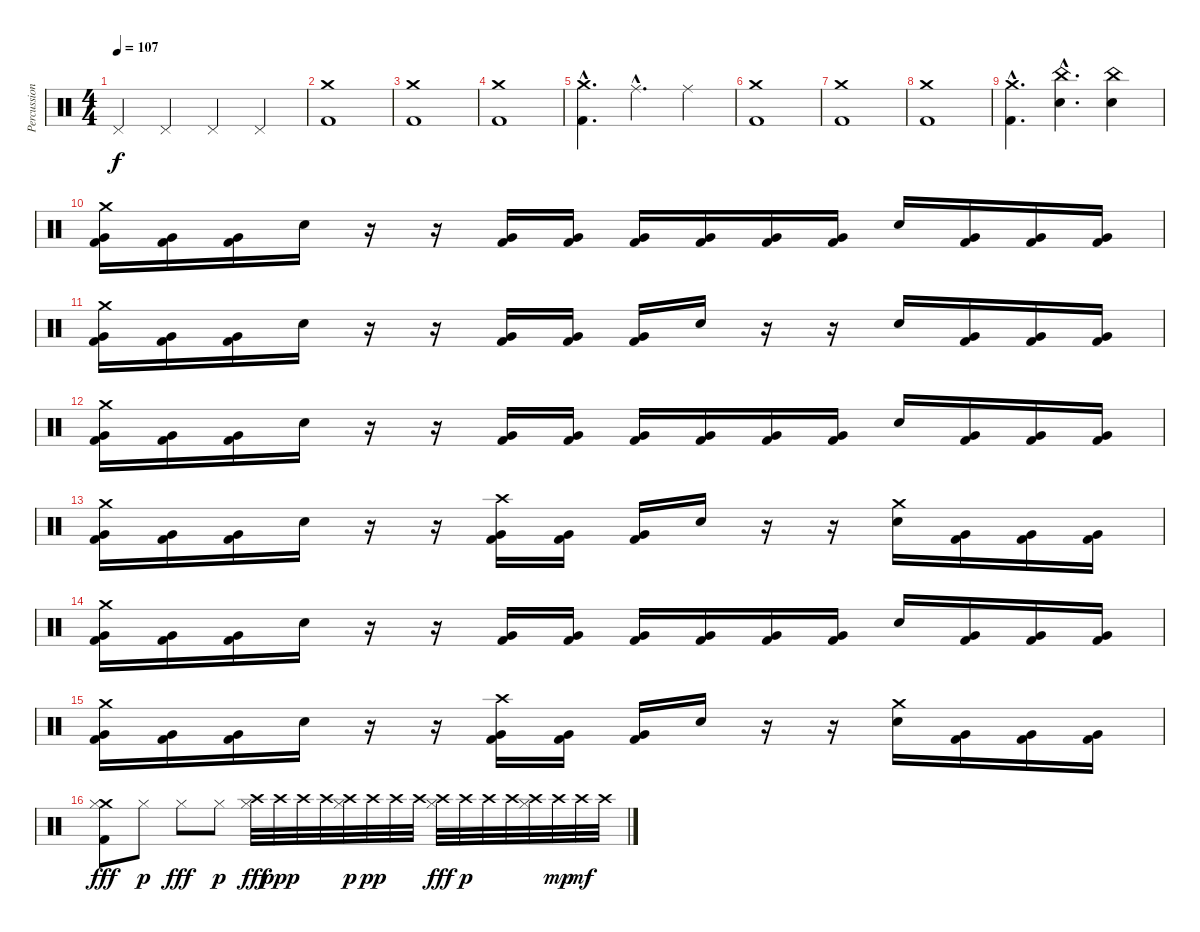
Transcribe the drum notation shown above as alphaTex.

\track ("Percussion" "Percussion") {instrument percussion}
\staff {score}
\articulation defaults
\ts (4 4)
\tempo 107
\clef neutral
\ks c "Pedal Hi-Hat (hit)".4{dy f} "Pedal Hi-Hat (hit)".4 "Pedal Hi-Hat (hit)".4 "Pedal Hi-Hat (hit)".4
|
("Crash medium (hit)" "Kick (hit) 2").1 |
("Crash medium (hit)" "Kick (hit) 2").1 |
("Crash medium (hit)" "Kick (hit) 2").1 |
("Crash medium (hit)"{hac} "Kick (hit) 2"{hac}).4{d} "Ride (middle)"{hac}.4{d} "Ride (middle)".4 |
("Crash medium (hit)" "Kick (hit) 2").1 |
("Crash medium (hit)" "Kick (hit) 2").1 |
("Crash medium (hit)" "Kick (hit) 2").1 |
("Crash medium (hit)"{hac} "Kick (hit) 2"{hac}).4{d} ("China (hit)"{hac} "Electric Snare (hit)"{hac}).4{d} ("China (hit)" "Electric Snare (hit)").4 |
("Crash medium (hit)" "Very Low Tom (hit)" "Kick (hit) 2").16 ("Very Low Tom (hit)" "Kick (hit) 2").16 ("Very Low Tom (hit)" "Kick (hit) 2").16 "Electric Snare (hit)".16 r.16 r.16 ("Very Low Tom (hit)" "Kick (hit) 2").16 ("Very Low Tom (hit)" "Kick (hit) 2").16 ("Very Low Tom (hit)" "Kick (hit) 2").16 ("Very Low Tom (hit)" "Kick (hit) 2").16 ("Very Low Tom (hit)" "Kick (hit) 2").16 ("Very Low Tom (hit)" "Kick (hit) 2").16 "Electric Snare (hit)".16 ("Very Low Tom (hit)" "Kick (hit) 2").16 ("Very Low Tom (hit)" "Kick (hit) 2").16 ("Very Low Tom (hit)" "Kick (hit) 2").16 |
("Crash medium (hit)" "Very Low Tom (hit)" "Kick (hit) 2").16 ("Very Low Tom (hit)" "Kick (hit) 2").16 ("Very Low Tom (hit)" "Kick (hit) 2").16 "Electric Snare (hit)".16 r.16 r.16 ("Very Low Tom (hit)" "Kick (hit) 2").16 ("Very Low Tom (hit)" "Kick (hit) 2").16 ("Very Low Tom (hit)" "Kick (hit) 2").16 "Electric Snare (hit)".16 r.16 r.16 "Electric Snare (hit)".16 ("Very Low Tom (hit)" "Kick (hit) 2").16 ("Very Low Tom (hit)" "Kick (hit) 2").16 ("Very Low Tom (hit)" "Kick (hit) 2").16 |
("Crash medium (hit)" "Very Low Tom (hit)" "Kick (hit) 2").16 ("Very Low Tom (hit)" "Kick (hit) 2").16 ("Very Low Tom (hit)" "Kick (hit) 2").16 "Electric Snare (hit)".16 r.16 r.16 ("Very Low Tom (hit)" "Kick (hit) 2").16 ("Very Low Tom (hit)" "Kick (hit) 2").16 ("Very Low Tom (hit)" "Kick (hit) 2").16 ("Very Low Tom (hit)" "Kick (hit) 2").16 ("Very Low Tom (hit)" "Kick (hit) 2").16 ("Very Low Tom (hit)" "Kick (hit) 2").16 "Electric Snare (hit)".16 ("Very Low Tom (hit)" "Kick (hit) 2").16 ("Very Low Tom (hit)" "Kick (hit) 2").16 ("Very Low Tom (hit)" "Kick (hit) 2").16 |
("Crash medium (hit)" "Very Low Tom (hit)" "Kick (hit) 2").16 ("Very Low Tom (hit)" "Kick (hit) 2").16 ("Very Low Tom (hit)" "Kick (hit) 2").16 "Electric Snare (hit)".16 r.16 r.16 ("Crash high (hit)" "Very Low Tom (hit)" "Kick (hit) 2").16 ("Very Low Tom (hit)" "Kick (hit) 2").16 ("Very Low Tom (hit)" "Kick (hit) 2").16 "Electric Snare (hit)".16 r.16 r.16 ("Crash medium (hit)" "Electric Snare (hit)").16 ("Very Low Tom (hit)" "Kick (hit) 2").16 ("Very Low Tom (hit)" "Kick (hit) 2").16 ("Very Low Tom (hit)" "Kick (hit) 2").16 |
("Crash medium (hit)" "Very Low Tom (hit)" "Kick (hit) 2").16 ("Very Low Tom (hit)" "Kick (hit) 2").16 ("Very Low Tom (hit)" "Kick (hit) 2").16 "Electric Snare (hit)".16 r.16 r.16 ("Very Low Tom (hit)" "Kick (hit) 2").16 ("Very Low Tom (hit)" "Kick (hit) 2").16 ("Very Low Tom (hit)" "Kick (hit) 2").16 ("Very Low Tom (hit)" "Kick (hit) 2").16 ("Very Low Tom (hit)" "Kick (hit) 2").16 ("Very Low Tom (hit)" "Kick (hit) 2").16 "Electric Snare (hit)".16 ("Very Low Tom (hit)" "Kick (hit) 2").16 ("Very Low Tom (hit)" "Kick (hit) 2").16 ("Very Low Tom (hit)" "Kick (hit) 2").16 |
("Crash medium (hit)" "Very Low Tom (hit)" "Kick (hit) 2").16 ("Very Low Tom (hit)" "Kick (hit) 2").16 ("Very Low Tom (hit)" "Kick (hit) 2").16 "Electric Snare (hit)".16 r.16 r.16 ("Crash high (hit)" "Very Low Tom (hit)" "Kick (hit) 2").16 ("Very Low Tom (hit)" "Kick (hit) 2").16 ("Very Low Tom (hit)" "Kick (hit) 2").16 "Electric Snare (hit)".16 r.16 r.16 ("Crash medium (hit)" "Electric Snare (hit)").16 ("Very Low Tom (hit)" "Kick (hit) 2").16 ("Very Low Tom (hit)" "Kick (hit) 2").16 ("Very Low Tom (hit)" "Kick (hit) 2").16 |
("Crash medium (hit)" "Hi-Hat (closed)" "Kick (hit) 2").8{dy fff} "Hi-Hat (closed)".8{dy p} "Hi-Hat (closed)".8{dy fff} "Hi-Hat (closed)".8{dy p} ("Crash high (hit)" "Hi-Hat (closed)").32{dy fff} "Crash high (hit)".32{dy ppp} "Crash high (hit)".32 "Crash high (hit)".32 ("Crash high (hit)" "Hi-Hat (closed)").32{dy p} "Crash high (hit)".32{dy pp} "Crash high (hit)".32 "Crash high (hit)".32 ("Crash high (hit)" "Hi-Hat (closed)").32{dy fff} "Crash high (hit)".32{dy p} "Crash high (hit)".32 "Crash high (hit)".32 ("Crash high (hit)" "Hi-Hat (closed)").32 "Crash high (hit)".32{dy mp} "Crash high (hit)".32{dy mf} "Crash high (hit)".32
